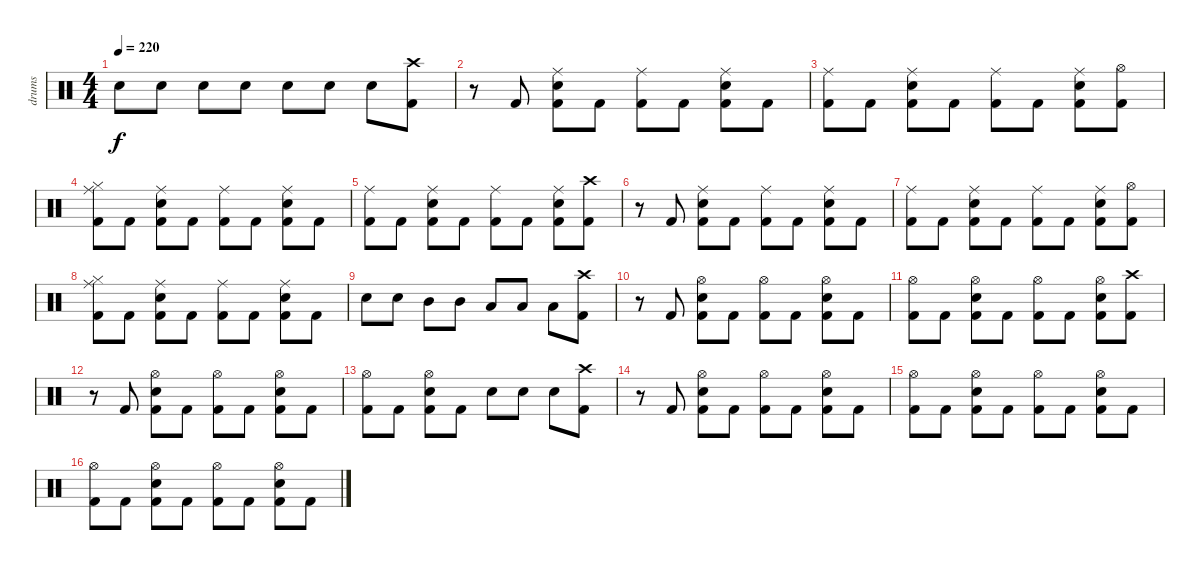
\track ("drums" "drums") {instrument percussion}
\staff {score}
\articulation defaults
\ts (4 4)
\tempo 220
\clef neutral
\ks c "Electric Snare (hit)".8{dy f} "Electric Snare (hit)".8 "Electric Snare (hit)".8 "Electric Snare (hit)".8 "Electric Snare (hit)".8 "Electric Snare (hit)".8 "Electric Snare (hit)".8
("Crash high (hit)" "Kick (hit) 2").8 |
r.8 "Kick (hit) 2".8 ("Ride (middle)" "Electric Snare (hit)" "Kick (hit) 2").8 "Kick (hit) 2".8 ("Ride (middle)" "Kick (hit) 2").8 "Kick (hit) 2".8 ("Ride (middle)" "Electric Snare (hit)" "Kick (hit) 2").8 "Kick (hit) 2".8 |
("Ride (middle)" "Kick (hit) 2").8 "Kick (hit) 2".8 ("Ride (middle)" "Electric Snare (hit)" "Kick (hit) 2").8 "Kick (hit) 2".8 ("Ride (middle)" "Kick (hit) 2").8 "Kick (hit) 2".8 ("Ride (middle)" "Electric Snare (hit)" "Kick (hit) 2").8 ("Hi-Hat (open)" "Kick (hit) 2").8 |
("Ride (middle)" "Hi-Hat (closed)" "Kick (hit) 2").8 "Kick (hit) 2".8 ("Ride (middle)" "Electric Snare (hit)" "Kick (hit) 2").8 "Kick (hit) 2".8 ("Ride (middle)" "Kick (hit) 2").8 "Kick (hit) 2".8 ("Ride (middle)" "Electric Snare (hit)" "Kick (hit) 2").8 "Kick (hit) 2".8 |
("Ride (middle)" "Kick (hit) 2").8 "Kick (hit) 2".8 ("Ride (middle)" "Electric Snare (hit)" "Kick (hit) 2").8 "Kick (hit) 2".8 ("Ride (middle)" "Kick (hit) 2").8 "Kick (hit) 2".8 ("Ride (middle)" "Electric Snare (hit)" "Kick (hit) 2").8 ("Crash high (hit)" "Kick (hit) 2").8 |
r.8 "Kick (hit) 2".8 ("Ride (middle)" "Electric Snare (hit)" "Kick (hit) 2").8 "Kick (hit) 2".8 ("Ride (middle)" "Kick (hit) 2").8 "Kick (hit) 2".8 ("Ride (middle)" "Electric Snare (hit)" "Kick (hit) 2").8 "Kick (hit) 2".8 |
("Ride (middle)" "Kick (hit) 2").8 "Kick (hit) 2".8 ("Ride (middle)" "Electric Snare (hit)" "Kick (hit) 2").8 "Kick (hit) 2".8 ("Ride (middle)" "Kick (hit) 2").8 "Kick (hit) 2".8 ("Ride (middle)" "Electric Snare (hit)" "Kick (hit) 2").8 ("Hi-Hat (open)" "Kick (hit) 2").8 |
("Ride (middle)" "Hi-Hat (closed)" "Kick (hit) 2").8 "Kick (hit) 2".8 ("Ride (middle)" "Electric Snare (hit)" "Kick (hit) 2").8 "Kick (hit) 2".8 ("Ride (middle)" "Kick (hit) 2").8 "Kick (hit) 2".8 ("Ride (middle)" "Electric Snare (hit)" "Kick (hit) 2").8 "Kick (hit) 2".8 |
"Electric Snare (hit)".8 "Electric Snare (hit)".8 "Mid Tom (hit)".8 "Mid Tom (hit)".8 "Low Tom (hit)".8 "Low Tom (hit)".8 "Low Floor Tom (hit)".8 ("Crash high (hit)" "Kick (hit) 2").8 |
r.8 "Kick (hit) 2".8 ("Hi-Hat (open)" "Electric Snare (hit)" "Kick (hit) 2").8 "Kick (hit) 2".8 ("Hi-Hat (open)" "Kick (hit) 2").8 "Kick (hit) 2".8 ("Hi-Hat (open)" "Electric Snare (hit)" "Kick (hit) 2").8 "Kick (hit) 2".8 |
("Hi-Hat (open)" "Kick (hit) 2").8 "Kick (hit) 2".8 ("Hi-Hat (open)" "Electric Snare (hit)" "Kick (hit) 2").8 "Kick (hit) 2".8 ("Hi-Hat (open)" "Kick (hit) 2").8 "Kick (hit) 2".8 ("Hi-Hat (open)" "Electric Snare (hit)" "Kick (hit) 2").8 ("Crash high (hit)" "Kick (hit) 2").8 |
r.8 "Kick (hit) 2".8 ("Hi-Hat (open)" "Electric Snare (hit)" "Kick (hit) 2").8 "Kick (hit) 2".8 ("Hi-Hat (open)" "Kick (hit) 2").8 "Kick (hit) 2".8 ("Hi-Hat (open)" "Electric Snare (hit)" "Kick (hit) 2").8 "Kick (hit) 2".8 |
("Hi-Hat (open)" "Kick (hit) 2").8 "Kick (hit) 2".8 ("Hi-Hat (open)" "Electric Snare (hit)" "Kick (hit) 2").8 "Kick (hit) 2".8 "Electric Snare (hit)".8 "Electric Snare (hit)".8 "Electric Snare (hit)".8 ("Crash high (hit)" "Kick (hit) 2").8 |
r.8 "Kick (hit) 2".8 ("Hi-Hat (open)" "Electric Snare (hit)" "Kick (hit) 2").8 "Kick (hit) 2".8 ("Hi-Hat (open)" "Kick (hit) 2").8 "Kick (hit) 2".8 ("Hi-Hat (open)" "Electric Snare (hit)" "Kick (hit) 2").8 "Kick (hit) 2".8 |
("Hi-Hat (open)" "Kick (hit) 2").8 "Kick (hit) 2".8 ("Hi-Hat (open)" "Electric Snare (hit)" "Kick (hit) 2").8 "Kick (hit) 2".8 ("Hi-Hat (open)" "Kick (hit) 2").8 "Kick (hit) 2".8 ("Hi-Hat (open)" "Electric Snare (hit)" "Kick (hit) 2").8 "Kick (hit) 2".8 |
("Hi-Hat (open)" "Kick (hit) 2").8 "Kick (hit) 2".8 ("Hi-Hat (open)" "Electric Snare (hit)" "Kick (hit) 2").8 "Kick (hit) 2".8 ("Hi-Hat (open)" "Kick (hit) 2").8 "Kick (hit) 2".8 ("Hi-Hat (open)" "Electric Snare (hit)" "Kick (hit) 2").8 "Kick (hit) 2".8
